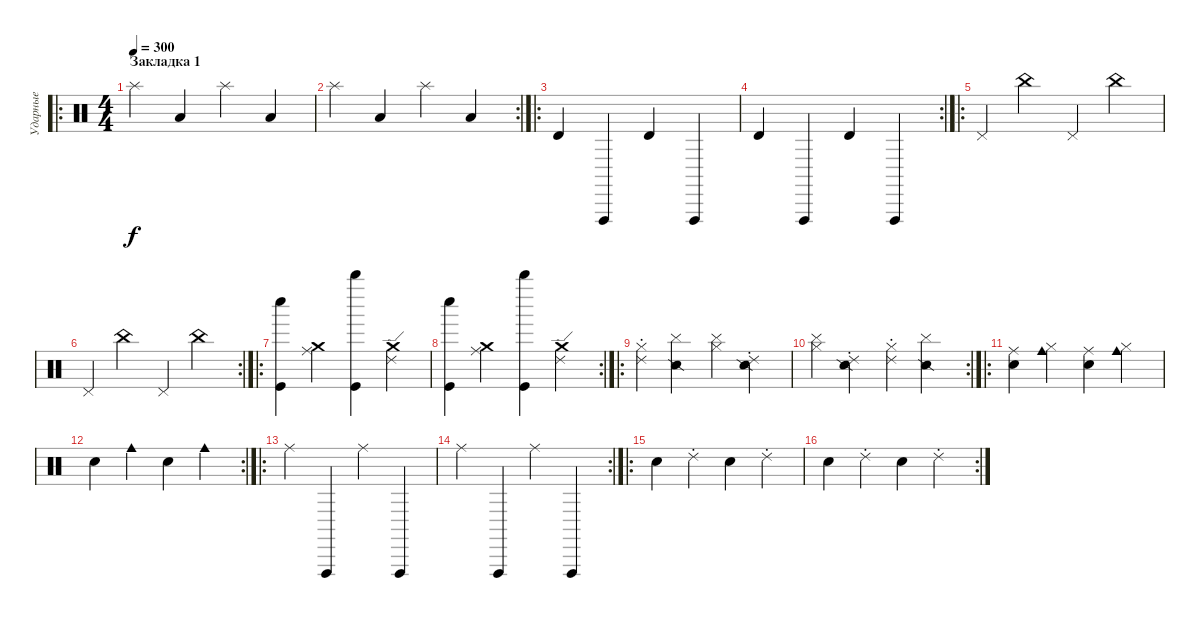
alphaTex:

\track ("Ударные" "Ударные") {instrument percussion}
\staff {score}
\articulation defaults
\ro
\ts (4 4)
\section ("" "Закладка 1")
\tempo 300
\clef neutral
\ks c "Splash (hit)".4{dy f} "Low Tom (hit)".4 "Splash (hit)".4 "Low Tom (hit)".4
|
\rc 2 "Splash (hit)".4 "Low Tom (hit)".4 "Splash (hit)".4 "Low Tom (hit)".4
|
\ro "Timbale high (hit)".4 "Vibraslap (hit)".4 "Timbale high (hit)".4 "Vibraslap (hit)".4
|
\rc 2 "Timbale high (hit)".4 "Vibraslap (hit)".4 "Timbale high (hit)".4 "Vibraslap (hit)".4
|
\ro "Pedal Hi-Hat (hit)".4 "China (hit)".4 "Pedal Hi-Hat (hit)".4 "China (hit)".4
|
\rc 2 "Pedal Hi-Hat (hit)".4 "China (hit)".4 "Pedal Hi-Hat (hit)".4 "China (hit)".4
|
\ro
("Kick (hit)" "Whistle low (hit)").4 ("Crash medium (hit)" "Ride (middle)").4 ("Kick (hit)" "Whistle high (hit)").4 ("Crash medium (hit)" "Ride (edge) 2").4 |
\rc 2
("Kick (hit)" "Whistle low (hit)").4 ("Crash medium (hit)" "Ride (middle)").4 ("Kick (hit)" "Whistle high (hit)").4 ("Crash medium (hit)" "Ride (edge) 2").4 |
\ro
("Hi-Hat (closed)" "Ride (choke) 2").4 ("Snare (side stick) 2" "Cymbal (hit)").4 ("Hi-Hat (closed)" "Cymbal (hit)").4 ("Snare (side stick) 2" "Ride (choke) 2").4 |
\rc 2
("Hi-Hat (closed)" "Cymbal (hit)").4 ("Snare (side stick) 2" "Ride (choke) 2").4 ("Hi-Hat (closed)" "Ride (choke) 2").4 ("Snare (side stick) 2" "Cymbal (hit)").4 |
\ro
("Hand Clap (hit)" "Ride (middle)").4 ("Cowbell medium (hit)" "Hi-Hat (closed)").4 ("Hand Clap (hit)" "Ride (middle)").4 ("Cowbell medium (hit)" "Hi-Hat (closed)").4 |
\rc 2 "Hand Clap (hit)".4 "Cowbell medium (hit)".4 "Hand Clap (hit)".4 "Cowbell medium (hit)".4
|
\ro "Ride (middle)".4 "Vibraslap (hit)".4 "Ride (middle)".4 "Vibraslap (hit)".4
|
\rc 2 "Ride (middle)".4 "Vibraslap (hit)".4 "Ride (middle)".4 "Vibraslap (hit)".4
|
\ro "Snare (hit)".4 "Ride (choke) 2".4 "Snare (hit)".4 "Ride (choke) 2".4
|
\rc 2 "Snare (hit)".4 "Ride (choke) 2".4 "Snare (hit)".4 "Ride (choke) 2".4
